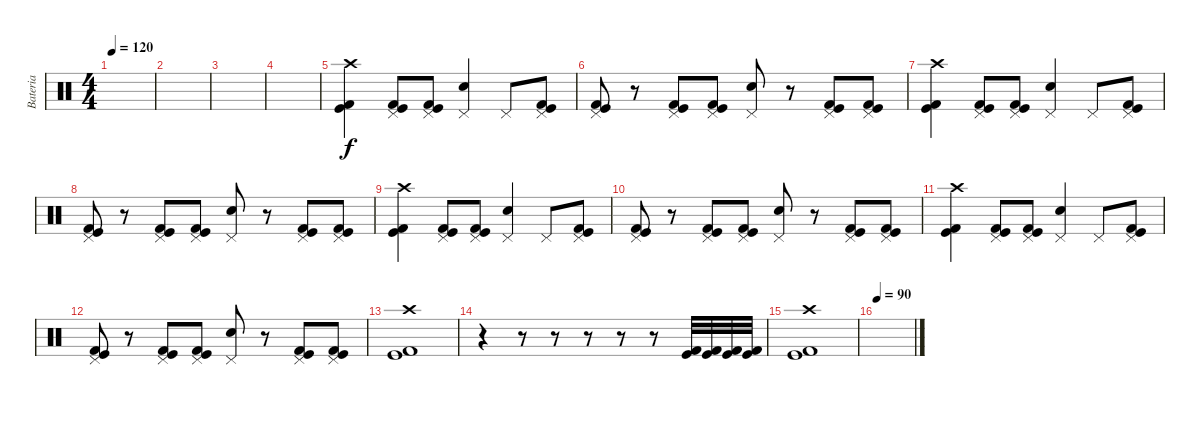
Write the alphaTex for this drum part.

\track ("Bateria" "Bateria") {instrument percussion}
\staff {score}
\articulation defaults
\ts (4 4)
\tempo 120
\clef neutral
\ks c
|
|
|
|
("Kick (hit) 2" "Kick (hit)" "Crash high (hit)").4 ("Kick (hit) 2" "Kick (hit)" "Pedal Hi-Hat (hit)").8 ("Kick (hit)" "Kick (hit) 2" "Pedal Hi-Hat (hit)").8 ("Electric Snare (hit)" "Pedal Hi-Hat (hit)").4 "Pedal Hi-Hat (hit)".8 ("Kick (hit) 2" "Kick (hit)" "Pedal Hi-Hat (hit)").8 |
("Kick (hit) 2" "Kick (hit)" "Pedal Hi-Hat (hit)").8 r.8 ("Kick (hit)" "Kick (hit) 2" "Pedal Hi-Hat (hit)").8 ("Kick (hit)" "Kick (hit) 2" "Pedal Hi-Hat (hit)").8 ("Electric Snare (hit)" "Pedal Hi-Hat (hit)").8 r.8 ("Kick (hit)" "Kick (hit) 2" "Pedal Hi-Hat (hit)").8 ("Kick (hit)" "Kick (hit) 2" "Pedal Hi-Hat (hit)").8 |
("Kick (hit) 2" "Kick (hit)" "Crash high (hit)").4 ("Kick (hit) 2" "Kick (hit)" "Pedal Hi-Hat (hit)").8 ("Kick (hit)" "Kick (hit) 2" "Pedal Hi-Hat (hit)").8 ("Electric Snare (hit)" "Pedal Hi-Hat (hit)").4 "Pedal Hi-Hat (hit)".8 ("Kick (hit) 2" "Kick (hit)" "Pedal Hi-Hat (hit)").8 |
("Kick (hit) 2" "Kick (hit)" "Pedal Hi-Hat (hit)").8 r.8 ("Kick (hit)" "Kick (hit) 2" "Pedal Hi-Hat (hit)").8 ("Kick (hit)" "Kick (hit) 2" "Pedal Hi-Hat (hit)").8 ("Electric Snare (hit)" "Pedal Hi-Hat (hit)").8 r.8 ("Kick (hit)" "Kick (hit) 2" "Pedal Hi-Hat (hit)").8 ("Kick (hit)" "Kick (hit) 2" "Pedal Hi-Hat (hit)").8 |
("Kick (hit) 2" "Kick (hit)" "Crash high (hit)").4 ("Kick (hit) 2" "Kick (hit)" "Pedal Hi-Hat (hit)").8 ("Kick (hit)" "Kick (hit) 2" "Pedal Hi-Hat (hit)").8 ("Electric Snare (hit)" "Pedal Hi-Hat (hit)").4 "Pedal Hi-Hat (hit)".8 ("Kick (hit) 2" "Kick (hit)" "Pedal Hi-Hat (hit)").8 |
("Kick (hit) 2" "Kick (hit)" "Pedal Hi-Hat (hit)").8 r.8 ("Kick (hit)" "Kick (hit) 2" "Pedal Hi-Hat (hit)").8 ("Kick (hit)" "Kick (hit) 2" "Pedal Hi-Hat (hit)").8 ("Electric Snare (hit)" "Pedal Hi-Hat (hit)").8 r.8 ("Kick (hit)" "Kick (hit) 2" "Pedal Hi-Hat (hit)").8 ("Kick (hit)" "Kick (hit) 2" "Pedal Hi-Hat (hit)").8 |
("Kick (hit) 2" "Kick (hit)" "Crash high (hit)").4 ("Kick (hit) 2" "Kick (hit)" "Pedal Hi-Hat (hit)").8 ("Kick (hit)" "Kick (hit) 2" "Pedal Hi-Hat (hit)").8 ("Electric Snare (hit)" "Pedal Hi-Hat (hit)").4 "Pedal Hi-Hat (hit)".8 ("Kick (hit) 2" "Kick (hit)" "Pedal Hi-Hat (hit)").8 |
("Kick (hit) 2" "Kick (hit)" "Pedal Hi-Hat (hit)").8 r.8 ("Kick (hit)" "Kick (hit) 2" "Pedal Hi-Hat (hit)").8 ("Kick (hit)" "Kick (hit) 2" "Pedal Hi-Hat (hit)").8 ("Electric Snare (hit)" "Pedal Hi-Hat (hit)").8 r.8 ("Kick (hit)" "Kick (hit) 2" "Pedal Hi-Hat (hit)").8 ("Kick (hit)" "Kick (hit) 2" "Pedal Hi-Hat (hit)").8 |
("Kick (hit) 2" "Kick (hit)" "Crash high (hit)").1 |
r.4 r.8 r.8 r.8 r.8 r.8 ("Kick (hit)" "Kick (hit) 2").32 ("Kick (hit)" "Kick (hit) 2").32 ("Kick (hit)" "Kick (hit) 2").32 ("Kick (hit)" "Kick (hit) 2").32 |
("Kick (hit) 2" "Kick (hit)" "Crash high (hit)").1 |
\tempo 90
